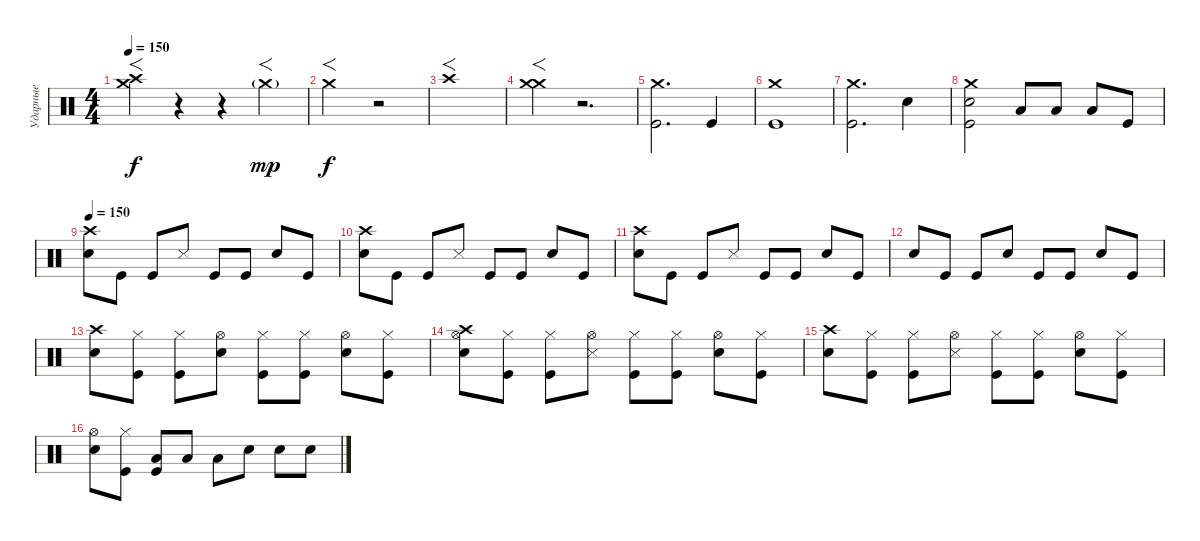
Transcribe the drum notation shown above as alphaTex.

\track ("Ударные" "Ударные") {instrument percussion}
\staff {score}
\articulation defaults
\ts (4 4)
\tempo 150
\clef neutral
\ks c
("Crash high (hit)" "Crash medium (hit)").4{f dy f} r.4 r.4 "Crash medium (hit)"{g}.4{f dy mp} |
"Crash medium (hit)".2{f dy f} r.2 |
"Crash high (hit)".1{f} |
("Crash medium (hit)" "Crash medium (hit)").4{f} r.2{d} |
("Crash medium (hit)" "Kick (hit)").2{d} "Kick (hit)".4 |
("Crash medium (hit)" "Kick (hit)").1 |
("Crash medium (hit)" "Kick (hit)").2{d} "Electric Snare (hit)".4 |
("Crash medium (hit)" "Electric Snare (hit)" "Kick (hit)").2 "Low Tom (hit)".8 "Low Tom (hit)".8 "Low Tom (hit)".8 "Kick (hit)".8 |
\tempo 150
("Crash high (hit)" "Electric Snare (hit)").8 "Kick (hit)".8 "Kick (hit)".8 "Snare (side stick) 3".8 "Kick (hit)".8 "Kick (hit)".8 "Electric Snare (hit)".8 "Kick (hit)".8 |
("Crash high (hit)" "Electric Snare (hit)").8 "Kick (hit)".8 "Kick (hit)".8 "Snare (side stick) 3".8 "Kick (hit)".8 "Kick (hit)".8 "Electric Snare (hit)".8 "Kick (hit)".8 |
("Crash high (hit)" "Electric Snare (hit)").8 "Kick (hit)".8 "Kick (hit)".8 "Snare (side stick) 3".8 "Kick (hit)".8 "Kick (hit)".8 "Electric Snare (hit)".8 "Kick (hit)".8 |
"Electric Snare (hit)".8 "Kick (hit)".8 "Kick (hit)".8 "Electric Snare (hit)".8 "Kick (hit)".8 "Kick (hit)".8 "Electric Snare (hit)".8 "Kick (hit)".8 |
("Crash high (hit)" "Electric Snare (hit)").8 ("Hi-Hat (closed)" "Kick (hit)").8 ("Hi-Hat (closed)" "Kick (hit)").8 ("Hi-Hat (open)" "Electric Snare (hit)").8 ("Hi-Hat (closed)" "Kick (hit)").8 ("Hi-Hat (closed)" "Kick (hit)").8 ("Hi-Hat (open)" "Electric Snare (hit)").8 ("Hi-Hat (closed)" "Kick (hit)").8 |
("Crash high (hit)" "Hi-Hat (open)" "Electric Snare (hit)").8 ("Hi-Hat (closed)" "Kick (hit)").8 ("Hi-Hat (closed)" "Kick (hit)").8 ("Hi-Hat (open)" "Snare (side stick) 3").8 ("Hi-Hat (closed)" "Kick (hit)").8 ("Hi-Hat (closed)" "Kick (hit)").8 ("Hi-Hat (open)" "Electric Snare (hit)").8 ("Hi-Hat (closed)" "Kick (hit)").8 |
("Crash high (hit)" "Electric Snare (hit)").8 ("Hi-Hat (closed)" "Kick (hit)").8 ("Hi-Hat (closed)" "Kick (hit)").8 ("Hi-Hat (open)" "Snare (side stick) 3").8 ("Hi-Hat (closed)" "Kick (hit)").8 ("Hi-Hat (closed)" "Kick (hit)").8 ("Hi-Hat (open)" "Electric Snare (hit)").8 ("Hi-Hat (closed)" "Kick (hit)").8 |
("Hi-Hat (open)" "Electric Snare (hit)").8 ("Hi-Hat (closed)" "Kick (hit)").8 ("Low Tom (hit)" "Kick (hit)").8 "Low Tom (hit)".8 "Low Tom (hit)".8 "Electric Snare (hit)".8 "Electric Snare (hit)".8 "Electric Snare (hit)".8
